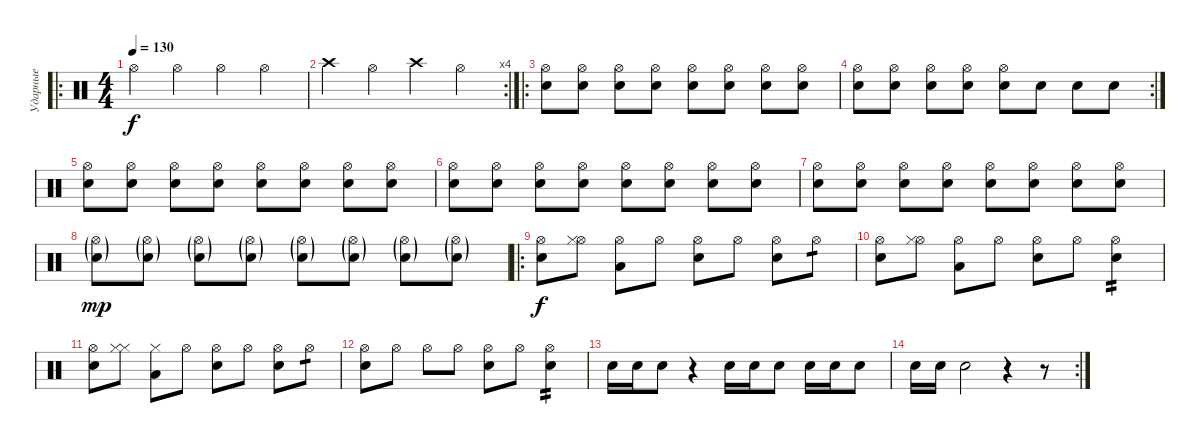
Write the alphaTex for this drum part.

\track ("Ударные" "Ударные") {instrument percussion}
\staff {score}
\articulation defaults
\ro
\ts (4 4)
\tempo 130
\clef neutral
\ks c "Hi-Hat (open)".4{dy f} "Hi-Hat (open)".4 "Hi-Hat (open)".4 "Hi-Hat (open)".4
|
\rc 4 "Crash high (hit)".4 "Hi-Hat (open)".4 "Crash high (hit)".4 "Hi-Hat (open)".4
|
\ro
("Hi-Hat (open)" "Electric Snare (hit)").8 ("Hi-Hat (open)" "Electric Snare (hit)").8 ("Hi-Hat (open)" "Electric Snare (hit)").8 ("Hi-Hat (open)" "Electric Snare (hit)").8 ("Hi-Hat (open)" "Electric Snare (hit)").8 ("Hi-Hat (open)" "Electric Snare (hit)").8 ("Hi-Hat (open)" "Electric Snare (hit)").8 ("Hi-Hat (open)" "Electric Snare (hit)").8 |
\rc 2
("Hi-Hat (open)" "Electric Snare (hit)").8 ("Hi-Hat (open)" "Electric Snare (hit)").8 ("Hi-Hat (open)" "Electric Snare (hit)").8 ("Hi-Hat (open)" "Electric Snare (hit)").8 ("Hi-Hat (open)" "Electric Snare (hit)").8 "Electric Snare (hit)".8 "Electric Snare (hit)".8 "Electric Snare (hit)".8 |
("Hi-Hat (open)" "Electric Snare (hit)").8 ("Hi-Hat (open)" "Electric Snare (hit)").8 ("Hi-Hat (open)" "Electric Snare (hit)").8 ("Hi-Hat (open)" "Electric Snare (hit)").8 ("Hi-Hat (open)" "Electric Snare (hit)").8 ("Hi-Hat (open)" "Electric Snare (hit)").8 ("Hi-Hat (open)" "Electric Snare (hit)").8 ("Hi-Hat (open)" "Electric Snare (hit)").8 |
("Electric Snare (hit)" "Hi-Hat (open)").8 ("Electric Snare (hit)" "Hi-Hat (open)").8 ("Electric Snare (hit)" "Hi-Hat (open)").8 ("Electric Snare (hit)" "Hi-Hat (open)").8 ("Electric Snare (hit)" "Hi-Hat (open)").8 ("Electric Snare (hit)" "Hi-Hat (open)").8 ("Electric Snare (hit)" "Hi-Hat (open)").8 ("Electric Snare (hit)" "Hi-Hat (open)").8 |
("Hi-Hat (open)" "Electric Snare (hit)").8 ("Hi-Hat (open)" "Electric Snare (hit)").8 ("Hi-Hat (open)" "Electric Snare (hit)").8 ("Hi-Hat (open)" "Electric Snare (hit)").8 ("Hi-Hat (open)" "Electric Snare (hit)").8 ("Hi-Hat (open)" "Electric Snare (hit)").8 ("Hi-Hat (open)" "Electric Snare (hit)").8 ("Hi-Hat (open)" "Electric Snare (hit)").8 |
("Electric Snare (hit)"{g} "Hi-Hat (open)"{g}).8{dy mp} ("Electric Snare (hit)"{g} "Hi-Hat (open)"{g}).8 ("Electric Snare (hit)"{g} "Hi-Hat (open)"{g}).8 ("Electric Snare (hit)"{g} "Hi-Hat (open)"{g}).8 ("Electric Snare (hit)"{g} "Hi-Hat (open)"{g}).8 ("Electric Snare (hit)"{g} "Hi-Hat (open)"{g}).8 ("Electric Snare (hit)"{g} "Hi-Hat (open)"{g}).8 ("Electric Snare (hit)"{g} "Hi-Hat (open)"{g}).8 |
\ro
("Hi-Hat (open)" "Electric Snare (hit)").8{dy f} ("Hi-Hat (open)" "Hi-Hat (closed)").8 ("Hi-Hat (open)" "Low Floor Tom (hit)").8 "Hi-Hat (open)".8 ("Hi-Hat (open)" "Electric Snare (hit)").8 "Hi-Hat (open)".8 ("Hi-Hat (open)" "Electric Snare (hit)").8 "Hi-Hat (open)".8{tp 1} |
("Hi-Hat (open)" "Electric Snare (hit)").8 ("Hi-Hat (open)" "Hi-Hat (closed)").8 ("Hi-Hat (open)" "Low Floor Tom (hit)").8 "Hi-Hat (open)".8 ("Hi-Hat (open)" "Electric Snare (hit)").8 "Hi-Hat (open)".8 ("Hi-Hat (open)" "Electric Snare (hit)").4{tp 2} |
("Hi-Hat (open)" "Electric Snare (hit)").8 ("Hi-Hat (closed)" "Hi-Hat (closed)").8 ("Hi-Hat (closed)" "Low Floor Tom (hit)").8 "Hi-Hat (open)".8 ("Hi-Hat (open)" "Electric Snare (hit)").8 "Hi-Hat (open)".8 ("Hi-Hat (open)" "Electric Snare (hit)").8 "Hi-Hat (open)".8{tp 1} |
("Hi-Hat (open)" "Electric Snare (hit)").8 "Hi-Hat (open)".8 "Hi-Hat (open)".8 "Hi-Hat (open)".8 ("Hi-Hat (open)" "Electric Snare (hit)").8 "Hi-Hat (open)".8 ("Hi-Hat (open)" "Electric Snare (hit)").4{tp 2} |
"Electric Snare (hit)".16 "Electric Snare (hit)".16 "Electric Snare (hit)".8 r.4 "Electric Snare (hit)".16 "Electric Snare (hit)".16 "Electric Snare (hit)".8 "Electric Snare (hit)".16 "Electric Snare (hit)".16 "Electric Snare (hit)".8 |
\rc 2 "Electric Snare (hit)".16 "Electric Snare (hit)".16 "Electric Snare (hit)".2
r.4 r.8
